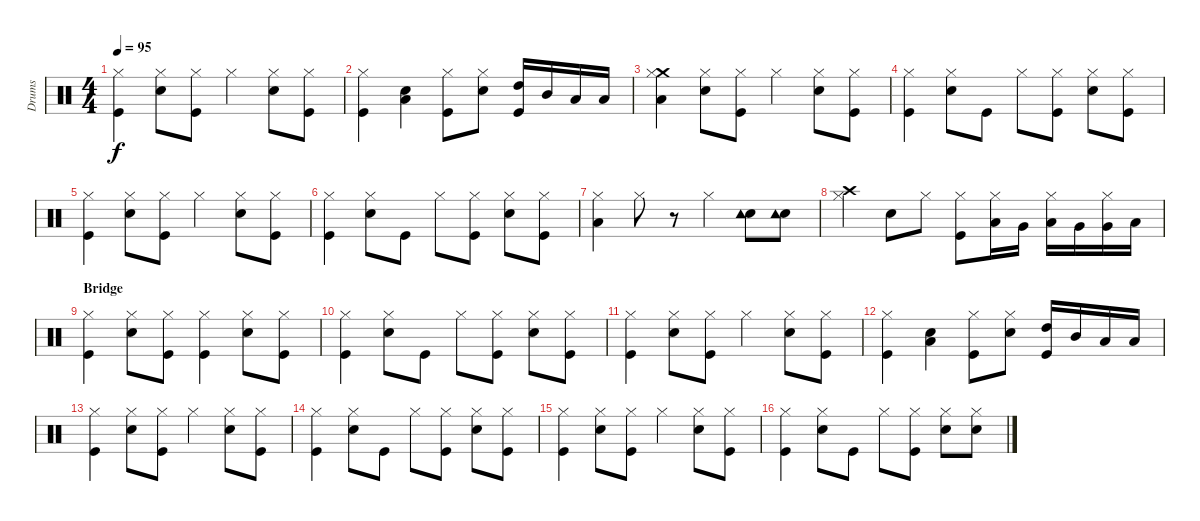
\track ("Drums" "Drums") {instrument percussion}
\staff {score}
\articulation defaults
\ts (4 4)
\tempo 95
\clef neutral
\ks c
("Kick (hit)" "Hi-Hat (closed)").4{dy f} ("Snare (hit) 2" "Hi-Hat (closed)").8 ("Kick (hit)" "Hi-Hat (closed)").8 "Hi-Hat (closed)".4 ("Snare (hit) 2" "Hi-Hat (closed)").8 ("Kick (hit)" "Hi-Hat (closed)").8 |
("Kick (hit)" "Hi-Hat (closed)").4 ("Snare (hit) 2" "Low Tom (hit)").4 ("Kick (hit)" "Hi-Hat (closed)").8 ("Snare (hit) 2" "Hi-Hat (closed)").8 ("Kick (hit)" "High Tom (hit)").16 "Mid Tom (hit)".16 "Low Tom (hit)".16 "Low Floor Tom (hit)".16 |
("Crash medium (hit)" "Low Tom (hit)" "Hi-Hat (closed)").4 ("Snare (hit) 2" "Hi-Hat (closed)").8 ("Kick (hit)" "Hi-Hat (closed)").8 "Hi-Hat (closed)".4 ("Snare (hit) 2" "Hi-Hat (closed)").8 ("Kick (hit)" "Hi-Hat (closed)").8 |
("Kick (hit)" "Hi-Hat (closed)").4 ("Snare (hit) 2" "Hi-Hat (closed)").8 "Kick (hit)".8 "Hi-Hat (closed)".8 ("Kick (hit)" "Hi-Hat (closed)").8 ("Snare (hit) 2" "Hi-Hat (closed)").8 ("Kick (hit)" "Hi-Hat (closed)").8 |
("Kick (hit)" "Hi-Hat (closed)").4 ("Snare (hit) 2" "Hi-Hat (closed)").8 ("Kick (hit)" "Hi-Hat (closed)").8 "Hi-Hat (closed)".4 ("Snare (hit) 2" "Hi-Hat (closed)").8 ("Kick (hit)" "Hi-Hat (closed)").8 |
("Kick (hit)" "Hi-Hat (closed)").4 ("Snare (hit) 2" "Hi-Hat (closed)").8 "Kick (hit)".8 "Hi-Hat (closed)".8 ("Kick (hit)" "Hi-Hat (closed)").8 ("Snare (hit) 2" "Hi-Hat (closed)").8 ("Kick (hit)" "Hi-Hat (closed)").8 |
("Low Tom (hit)" "Hi-Hat (closed)").4 "Hi-Hat (closed)".8 r.8 "Hi-Hat (closed)".4 ("Snare (hit) 2" "Tambourine (hit)").8 ("Snare (hit) 2" "Tambourine (hit)").8 |
("Crash high (hit)" "Hi-Hat (closed)").4 "Snare (hit) 2".8 "Hi-Hat (closed)".8 ("Kick (hit)" "Hi-Hat (closed)").8 ("Low Tom (hit)" "Hi-Hat (closed)").16 "Very Low Tom (hit)".16 ("Low Tom (hit)" "Hi-Hat (closed)").16 "Very Low Tom (hit)".16 ("Very Low Tom (hit)" "Hi-Hat (closed)").16 "Low Floor Tom (hit)".16 |
\section ("" "Bridge")
("Kick (hit)" "Hi-Hat (closed)").4 ("Snare (hit) 2" "Hi-Hat (closed)").8 ("Kick (hit)" "Hi-Hat (closed)").8 ("Kick (hit)" "Hi-Hat (closed)").4 ("Snare (hit) 2" "Hi-Hat (closed)").8 ("Kick (hit)" "Hi-Hat (closed)").8 |
("Kick (hit)" "Hi-Hat (closed)").4 ("Snare (hit) 2" "Hi-Hat (closed)").8 "Kick (hit)".8 "Hi-Hat (closed)".8 ("Kick (hit)" "Hi-Hat (closed)").8 ("Snare (hit) 2" "Hi-Hat (closed)").8 ("Kick (hit)" "Hi-Hat (closed)").8 |
("Kick (hit)" "Hi-Hat (closed)").4 ("Snare (hit) 2" "Hi-Hat (closed)").8 ("Kick (hit)" "Hi-Hat (closed)").8 "Hi-Hat (closed)".4 ("Snare (hit) 2" "Hi-Hat (closed)").8 ("Kick (hit)" "Hi-Hat (closed)").8 |
("Kick (hit)" "Hi-Hat (closed)").4 ("Snare (hit) 2" "Low Tom (hit)").4 ("Kick (hit)" "Hi-Hat (closed)").8 ("Snare (hit) 2" "Hi-Hat (closed)").8 ("Kick (hit)" "High Tom (hit)").16 "Mid Tom (hit)".16 "Low Tom (hit)".16 "Low Floor Tom (hit)".16 |
("Kick (hit)" "Hi-Hat (closed)").4 ("Snare (hit) 2" "Hi-Hat (closed)").8 ("Kick (hit)" "Hi-Hat (closed)").8 "Hi-Hat (closed)".4 ("Snare (hit) 2" "Hi-Hat (closed)").8 ("Kick (hit)" "Hi-Hat (closed)").8 |
("Kick (hit)" "Hi-Hat (closed)").4 ("Snare (hit) 2" "Hi-Hat (closed)").8 "Kick (hit)".8 "Hi-Hat (closed)".8 ("Kick (hit)" "Hi-Hat (closed)").8 ("Snare (hit) 2" "Hi-Hat (closed)").8 ("Kick (hit)" "Hi-Hat (closed)").8 |
("Kick (hit)" "Hi-Hat (closed)").4 ("Snare (hit) 2" "Hi-Hat (closed)").8 ("Kick (hit)" "Hi-Hat (closed)").8 "Hi-Hat (closed)".4 ("Snare (hit) 2" "Hi-Hat (closed)").8 ("Kick (hit)" "Hi-Hat (closed)").8 |
("Kick (hit)" "Hi-Hat (closed)").4 ("Snare (hit) 2" "Hi-Hat (closed)").8 "Kick (hit)".8 "Hi-Hat (closed)".8 ("Kick (hit)" "Hi-Hat (closed)").8 ("Snare (hit) 2" "Hi-Hat (closed)").8 ("Snare (hit) 2" "Hi-Hat (closed)").8
